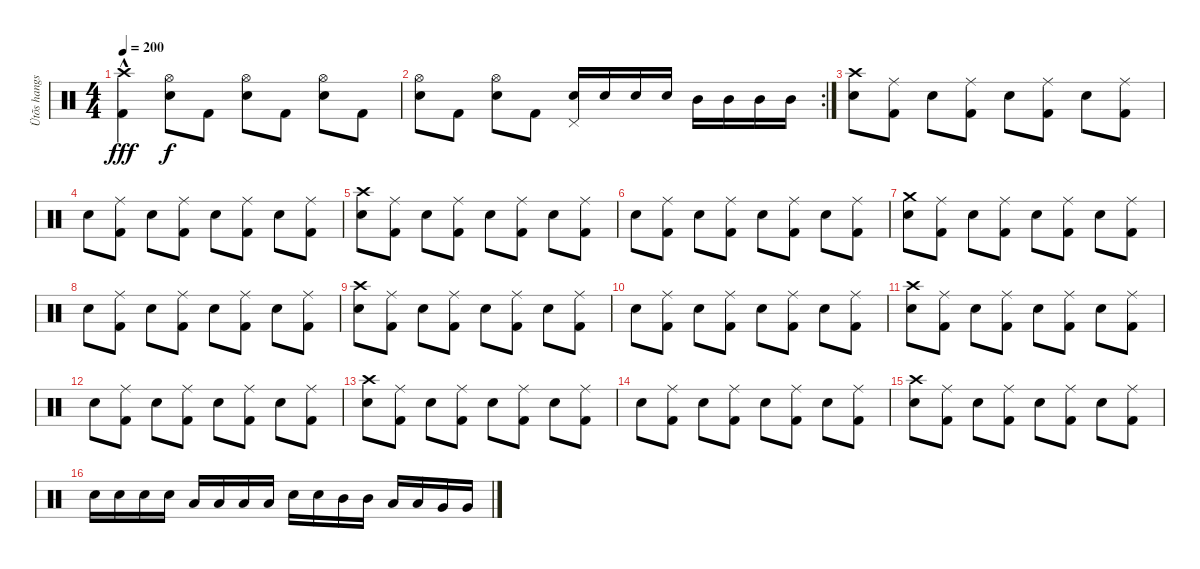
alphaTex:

\track ("Ütõs hangszer" "Ütõs hangs") {instrument percussion}
\staff {score}
\articulation defaults
\ts (4 4)
\tempo 200
\clef neutral
\ks c
("Crash high (hit)"{hac} "Kick (hit) 2").4{dy fff} ("Hi-Hat (open)" "Snare (hit) 2").8{dy f} "Kick (hit) 2".8 ("Hi-Hat (open)" "Snare (hit) 2").8 "Kick (hit) 2".8 ("Hi-Hat (open)" "Snare (hit) 2").8 "Kick (hit) 2".8 |
\rc 2
("Hi-Hat (open)" "Snare (hit) 2").8 "Kick (hit) 2".8 ("Hi-Hat (open)" "Snare (hit) 2").8 "Kick (hit) 2".8 ("Pedal Hi-Hat (hit)" "Snare (hit) 2").16 "Snare (hit) 2".16 "Snare (hit) 2".16 "Snare (hit) 2".16 "Mid Tom (hit)".16 "Mid Tom (hit)".16 "Mid Tom (hit)".16 "Mid Tom (hit)".16 |
("Crash high (hit)" "Snare (hit) 2").8 ("Ride (middle)" "Kick (hit) 2").8 "Snare (hit) 2".8 ("Ride (middle)" "Kick (hit) 2").8 "Snare (hit) 2".8 ("Ride (middle)" "Kick (hit) 2").8 "Snare (hit) 2".8 ("Ride (middle)" "Kick (hit) 2").8 |
"Snare (hit) 2".8 ("Ride (middle)" "Kick (hit) 2").8 "Snare (hit) 2".8 ("Ride (middle)" "Kick (hit) 2").8 "Snare (hit) 2".8 ("Ride (middle)" "Kick (hit) 2").8 "Snare (hit) 2".8 ("Ride (middle)" "Kick (hit) 2").8 |
("Crash high (hit)" "Snare (hit) 2").8 ("Ride (middle)" "Kick (hit) 2").8 "Snare (hit) 2".8 ("Ride (middle)" "Kick (hit) 2").8 "Snare (hit) 2".8 ("Ride (middle)" "Kick (hit) 2").8 "Snare (hit) 2".8 ("Ride (middle)" "Kick (hit) 2").8 |
"Snare (hit) 2".8 ("Ride (middle)" "Kick (hit) 2").8 "Snare (hit) 2".8 ("Ride (middle)" "Kick (hit) 2").8 "Snare (hit) 2".8 ("Ride (middle)" "Kick (hit) 2").8 "Snare (hit) 2".8 ("Ride (middle)" "Kick (hit) 2").8 |
("Crash medium (hit)" "Snare (hit) 2").8 ("Ride (middle)" "Kick (hit) 2").8 "Snare (hit) 2".8 ("Ride (middle)" "Kick (hit) 2").8 "Snare (hit) 2".8 ("Ride (middle)" "Kick (hit) 2").8 "Snare (hit) 2".8 ("Ride (middle)" "Kick (hit) 2").8 |
"Snare (hit) 2".8 ("Ride (middle)" "Kick (hit) 2").8 "Snare (hit) 2".8 ("Ride (middle)" "Kick (hit) 2").8 "Snare (hit) 2".8 ("Ride (middle)" "Kick (hit) 2").8 "Snare (hit) 2".8 ("Ride (middle)" "Kick (hit) 2").8 |
("Crash high (hit)" "Snare (hit) 2").8 ("Ride (middle)" "Kick (hit) 2").8 "Snare (hit) 2".8 ("Ride (middle)" "Kick (hit) 2").8 "Snare (hit) 2".8 ("Ride (middle)" "Kick (hit) 2").8 "Snare (hit) 2".8 ("Ride (middle)" "Kick (hit) 2").8 |
"Snare (hit) 2".8 ("Ride (middle)" "Kick (hit) 2").8 "Snare (hit) 2".8 ("Ride (middle)" "Kick (hit) 2").8 "Snare (hit) 2".8 ("Ride (middle)" "Kick (hit) 2").8 "Snare (hit) 2".8 ("Ride (middle)" "Kick (hit) 2").8 |
("Crash high (hit)" "Snare (hit) 2").8 ("Ride (middle)" "Kick (hit) 2").8 "Snare (hit) 2".8 ("Ride (middle)" "Kick (hit) 2").8 "Snare (hit) 2".8 ("Ride (middle)" "Kick (hit) 2").8 "Snare (hit) 2".8 ("Ride (middle)" "Kick (hit) 2").8 |
"Snare (hit) 2".8 ("Ride (middle)" "Kick (hit) 2").8 "Snare (hit) 2".8 ("Ride (middle)" "Kick (hit) 2").8 "Snare (hit) 2".8 ("Ride (middle)" "Kick (hit) 2").8 "Snare (hit) 2".8 ("Ride (middle)" "Kick (hit) 2").8 |
("Crash high (hit)" "Snare (hit) 2").8 ("Ride (middle)" "Kick (hit) 2").8 "Snare (hit) 2".8 ("Ride (middle)" "Kick (hit) 2").8 "Snare (hit) 2".8 ("Ride (middle)" "Kick (hit) 2").8 "Snare (hit) 2".8 ("Ride (middle)" "Kick (hit) 2").8 |
"Snare (hit) 2".8 ("Ride (middle)" "Kick (hit) 2").8 "Snare (hit) 2".8 ("Ride (middle)" "Kick (hit) 2").8 "Snare (hit) 2".8 ("Ride (middle)" "Kick (hit) 2").8 "Snare (hit) 2".8 ("Ride (middle)" "Kick (hit) 2").8 |
("Crash high (hit)" "Snare (hit) 2").8 ("Ride (middle)" "Kick (hit) 2").8 "Snare (hit) 2".8 ("Ride (middle)" "Kick (hit) 2").8 "Snare (hit) 2".8 ("Ride (middle)" "Kick (hit) 2").8 "Snare (hit) 2".8 ("Ride (middle)" "Kick (hit) 2").8 |
"Electric Snare (hit)".16 "Electric Snare (hit)".16 "Electric Snare (hit)".16 "Electric Snare (hit)".16 "Low Tom (hit)".16 "Low Tom (hit)".16 "Low Tom (hit)".16 "Low Tom (hit)".16 "Electric Snare (hit)".16 "Electric Snare (hit)".16 "Mid Tom (hit)".16 "Mid Tom (hit)".16 "Low Tom (hit)".16 "Low Tom (hit)".16 "Very Low Tom (hit)".16 "Very Low Tom (hit)".16
